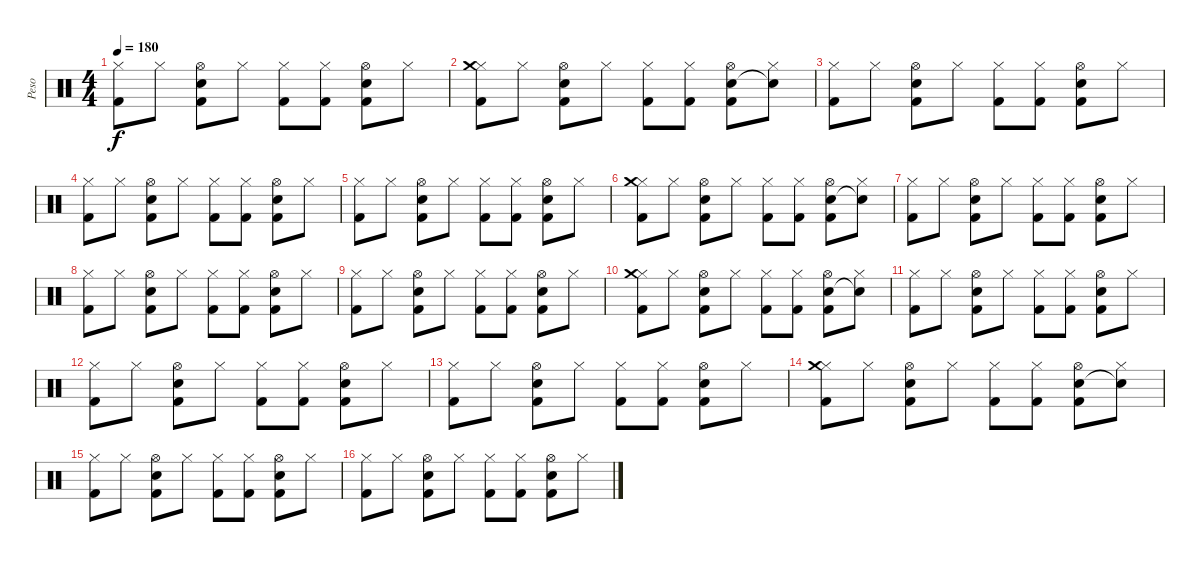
\track ("Peso" "Peso") {instrument percussion}
\staff {score}
\articulation defaults
\ts (4 4)
\tempo 180
\clef neutral
\ks c
("Hi-Hat (closed)" "Kick (hit) 2").8{dy f} "Hi-Hat (closed)".8 ("Hi-Hat (open)" "Electric Snare (hit)" "Kick (hit) 2").8 "Hi-Hat (closed)".8 ("Hi-Hat (closed)" "Kick (hit) 2").8 ("Hi-Hat (closed)" "Kick (hit) 2").8 ("Hi-Hat (open)" "Electric Snare (hit)" "Kick (hit) 2").8 "Hi-Hat (closed)".8 |
("Hi-Hat (closed)" "Crash medium (hit)" "Kick (hit) 2").8 "Hi-Hat (closed)".8 ("Hi-Hat (open)" "Electric Snare (hit)" "Kick (hit) 2").8 "Hi-Hat (closed)".8 ("Hi-Hat (closed)" "Kick (hit) 2").8 ("Hi-Hat (closed)" "Kick (hit) 2").8 ("Hi-Hat (open)" "Electric Snare (hit)" "Kick (hit) 2").8 ("Hi-Hat (closed)" "Snare (hit)"{t}).8 |
("Hi-Hat (closed)" "Kick (hit) 2").8 "Hi-Hat (closed)".8 ("Hi-Hat (open)" "Electric Snare (hit)" "Kick (hit) 2").8 "Hi-Hat (closed)".8 ("Hi-Hat (closed)" "Kick (hit) 2").8 ("Hi-Hat (closed)" "Kick (hit) 2").8 ("Hi-Hat (open)" "Electric Snare (hit)" "Kick (hit) 2").8 "Hi-Hat (closed)".8 |
("Hi-Hat (closed)" "Kick (hit) 2").8 "Hi-Hat (closed)".8 ("Hi-Hat (open)" "Electric Snare (hit)" "Kick (hit) 2").8 "Hi-Hat (closed)".8 ("Hi-Hat (closed)" "Kick (hit) 2").8 ("Hi-Hat (closed)" "Kick (hit) 2").8 ("Hi-Hat (open)" "Electric Snare (hit)" "Kick (hit) 2").8 "Hi-Hat (closed)".8 |
("Hi-Hat (closed)" "Kick (hit) 2").8 "Hi-Hat (closed)".8 ("Hi-Hat (open)" "Electric Snare (hit)" "Kick (hit) 2").8 "Hi-Hat (closed)".8 ("Hi-Hat (closed)" "Kick (hit) 2").8 ("Hi-Hat (closed)" "Kick (hit) 2").8 ("Hi-Hat (open)" "Electric Snare (hit)" "Kick (hit) 2").8 "Hi-Hat (closed)".8 |
("Hi-Hat (closed)" "Crash medium (hit)" "Kick (hit) 2").8 "Hi-Hat (closed)".8 ("Hi-Hat (open)" "Electric Snare (hit)" "Kick (hit) 2").8 "Hi-Hat (closed)".8 ("Hi-Hat (closed)" "Kick (hit) 2").8 ("Hi-Hat (closed)" "Kick (hit) 2").8 ("Hi-Hat (open)" "Electric Snare (hit)" "Kick (hit) 2").8 ("Hi-Hat (closed)" "Snare (hit)"{t}).8 |
("Hi-Hat (closed)" "Kick (hit) 2").8 "Hi-Hat (closed)".8 ("Hi-Hat (open)" "Electric Snare (hit)" "Kick (hit) 2").8 "Hi-Hat (closed)".8 ("Hi-Hat (closed)" "Kick (hit) 2").8 ("Hi-Hat (closed)" "Kick (hit) 2").8 ("Hi-Hat (open)" "Electric Snare (hit)" "Kick (hit) 2").8 "Hi-Hat (closed)".8 |
("Hi-Hat (closed)" "Kick (hit) 2").8 "Hi-Hat (closed)".8 ("Hi-Hat (open)" "Electric Snare (hit)" "Kick (hit) 2").8 "Hi-Hat (closed)".8 ("Hi-Hat (closed)" "Kick (hit) 2").8 ("Hi-Hat (closed)" "Kick (hit) 2").8 ("Hi-Hat (open)" "Electric Snare (hit)" "Kick (hit) 2").8 "Hi-Hat (closed)".8 |
("Hi-Hat (closed)" "Kick (hit) 2").8 "Hi-Hat (closed)".8 ("Hi-Hat (open)" "Electric Snare (hit)" "Kick (hit) 2").8 "Hi-Hat (closed)".8 ("Hi-Hat (closed)" "Kick (hit) 2").8 ("Hi-Hat (closed)" "Kick (hit) 2").8 ("Hi-Hat (open)" "Electric Snare (hit)" "Kick (hit) 2").8 "Hi-Hat (closed)".8 |
("Hi-Hat (closed)" "Crash medium (hit)" "Kick (hit) 2").8 "Hi-Hat (closed)".8 ("Hi-Hat (open)" "Electric Snare (hit)" "Kick (hit) 2").8 "Hi-Hat (closed)".8 ("Hi-Hat (closed)" "Kick (hit) 2").8 ("Hi-Hat (closed)" "Kick (hit) 2").8 ("Hi-Hat (open)" "Electric Snare (hit)" "Kick (hit) 2").8 ("Hi-Hat (closed)" "Snare (hit)"{t}).8 |
("Hi-Hat (closed)" "Kick (hit) 2").8 "Hi-Hat (closed)".8 ("Hi-Hat (open)" "Electric Snare (hit)" "Kick (hit) 2").8 "Hi-Hat (closed)".8 ("Hi-Hat (closed)" "Kick (hit) 2").8 ("Hi-Hat (closed)" "Kick (hit) 2").8 ("Hi-Hat (open)" "Electric Snare (hit)" "Kick (hit) 2").8 "Hi-Hat (closed)".8 |
("Hi-Hat (closed)" "Kick (hit) 2").8 "Hi-Hat (closed)".8 ("Hi-Hat (open)" "Electric Snare (hit)" "Kick (hit) 2").8 "Hi-Hat (closed)".8 ("Hi-Hat (closed)" "Kick (hit) 2").8 ("Hi-Hat (closed)" "Kick (hit) 2").8 ("Hi-Hat (open)" "Electric Snare (hit)" "Kick (hit) 2").8 "Hi-Hat (closed)".8 |
("Hi-Hat (closed)" "Kick (hit) 2").8 "Hi-Hat (closed)".8 ("Hi-Hat (open)" "Electric Snare (hit)" "Kick (hit) 2").8 "Hi-Hat (closed)".8 ("Hi-Hat (closed)" "Kick (hit) 2").8 ("Hi-Hat (closed)" "Kick (hit) 2").8 ("Hi-Hat (open)" "Electric Snare (hit)" "Kick (hit) 2").8 "Hi-Hat (closed)".8 |
("Hi-Hat (closed)" "Crash medium (hit)" "Kick (hit) 2").8 "Hi-Hat (closed)".8 ("Hi-Hat (open)" "Electric Snare (hit)" "Kick (hit) 2").8 "Hi-Hat (closed)".8 ("Hi-Hat (closed)" "Kick (hit) 2").8 ("Hi-Hat (closed)" "Kick (hit) 2").8 ("Hi-Hat (open)" "Electric Snare (hit)" "Kick (hit) 2").8 ("Hi-Hat (closed)" "Snare (hit)"{t}).8 |
("Hi-Hat (closed)" "Kick (hit) 2").8 "Hi-Hat (closed)".8 ("Hi-Hat (open)" "Electric Snare (hit)" "Kick (hit) 2").8 "Hi-Hat (closed)".8 ("Hi-Hat (closed)" "Kick (hit) 2").8 ("Hi-Hat (closed)" "Kick (hit) 2").8 ("Hi-Hat (open)" "Electric Snare (hit)" "Kick (hit) 2").8 "Hi-Hat (closed)".8 |
("Hi-Hat (closed)" "Kick (hit) 2").8 "Hi-Hat (closed)".8 ("Hi-Hat (open)" "Electric Snare (hit)" "Kick (hit) 2").8 "Hi-Hat (closed)".8 ("Hi-Hat (closed)" "Kick (hit) 2").8 ("Hi-Hat (closed)" "Kick (hit) 2").8 ("Hi-Hat (open)" "Electric Snare (hit)" "Kick (hit) 2").8 "Hi-Hat (closed)".8
